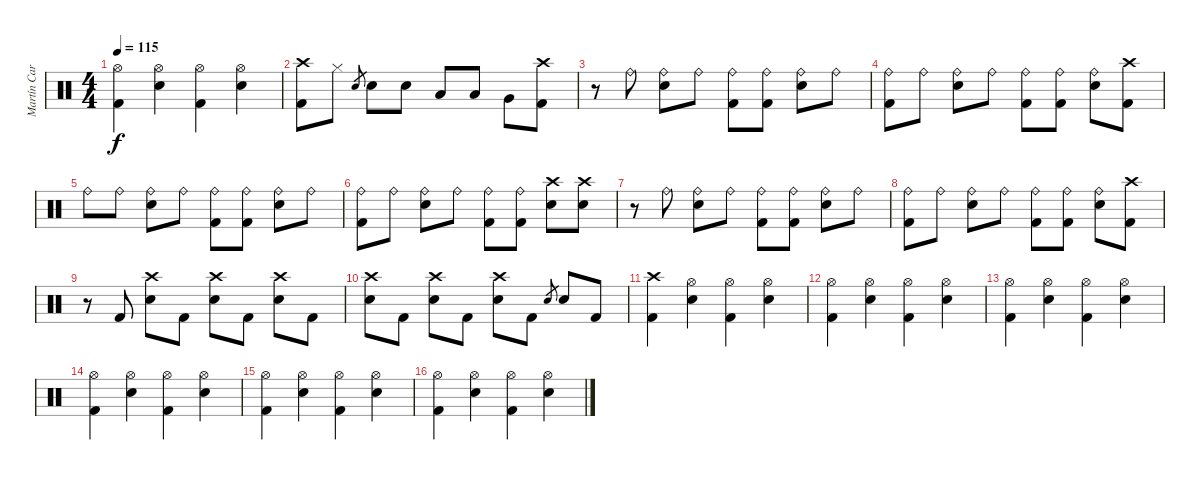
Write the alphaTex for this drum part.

\track ("Martín Carrizo" "Martín Car") {instrument percussion}
\staff {score}
\articulation defaults
\ts (4 4)
\tempo 115
\clef neutral
\ks c
("Hi-Hat (open)" "Kick (hit) 2").4{dy f} ("Hi-Hat (open)" "Snare (hit) 2").4 ("Hi-Hat (open)" "Kick (hit) 2").4 ("Hi-Hat (open)" "Snare (hit) 2").4 |
("Crash high (hit)" "Kick (hit) 2").8 "Hi-Hat (closed)".8 "Snare (hit) 2".8{gr} "Snare (hit) 2".8 "Snare (hit) 2".8 "Low Tom (hit)".8 "Low Tom (hit)".8 "Very Low Tom (hit)".8 ("Crash high (hit)" "Kick (hit) 2").8 |
r.8 "Ride (bell)".8 ("Ride (bell)" "Snare (hit) 2").8 "Ride (bell)".8 ("Ride (bell)" "Kick (hit) 2").8 ("Ride (bell)" "Kick (hit) 2").8 ("Ride (bell)" "Snare (hit) 2").8 "Ride (bell)".8 |
("Ride (bell)" "Kick (hit) 2").8 "Ride (bell)".8 ("Ride (bell)" "Snare (hit) 2").8 "Ride (bell)".8 ("Ride (bell)" "Kick (hit) 2").8 ("Ride (bell)" "Kick (hit) 2").8 ("Ride (bell)" "Snare (hit) 2").8 ("Crash high (hit)" "Kick (hit) 2").8 |
"Ride (bell)".8 "Ride (bell)".8 ("Ride (bell)" "Snare (hit) 2").8 "Ride (bell)".8 ("Ride (bell)" "Kick (hit) 2").8 ("Ride (bell)" "Kick (hit) 2").8 ("Ride (bell)" "Snare (hit) 2").8 "Ride (bell)".8 |
("Ride (bell)" "Kick (hit) 2").8 "Ride (bell)".8 ("Ride (bell)" "Snare (hit) 2").8 "Ride (bell)".8 ("Ride (bell)" "Kick (hit) 2").8 ("Ride (bell)" "Kick (hit) 2").8 ("Crash high (hit)" "Snare (hit) 2").8 ("Crash high (hit)" "Snare (hit) 2").8 |
r.8 "Ride (bell)".8 ("Ride (bell)" "Snare (hit) 2").8 "Ride (bell)".8 ("Ride (bell)" "Kick (hit) 2").8 ("Ride (bell)" "Kick (hit) 2").8 ("Ride (bell)" "Snare (hit) 2").8 "Ride (bell)".8 |
("Ride (bell)" "Kick (hit) 2").8 "Ride (bell)".8 ("Ride (bell)" "Snare (hit) 2").8 "Ride (bell)".8 ("Ride (bell)" "Kick (hit) 2").8 ("Ride (bell)" "Kick (hit) 2").8 ("Ride (bell)" "Snare (hit) 2").8 ("Crash high (hit)" "Kick (hit) 2").8 |
r.8 "Kick (hit) 2".8 ("Crash high (hit)" "Snare (hit) 2").8 "Kick (hit) 2".8 ("Crash high (hit)" "Snare (hit) 2").8 "Kick (hit) 2".8 ("Crash high (hit)" "Snare (hit) 2").8 "Kick (hit) 2".8 |
("Crash high (hit)" "Snare (hit) 2").8 "Kick (hit) 2".8 ("Crash high (hit)" "Snare (hit) 2").8 "Kick (hit) 2".8 ("Crash high (hit)" "Snare (hit) 2").8 "Kick (hit) 2".8 "Snare (hit) 2".8{gr} "Snare (hit) 2".8 "Kick (hit) 2".8 |
("Crash high (hit)" "Kick (hit) 2").4 ("Hi-Hat (open)" "Snare (hit) 2").4 ("Hi-Hat (open)" "Kick (hit) 2").4 ("Hi-Hat (open)" "Snare (hit) 2").4 |
("Hi-Hat (open)" "Kick (hit) 2").4 ("Hi-Hat (open)" "Snare (hit) 2").4 ("Hi-Hat (open)" "Kick (hit) 2").4 ("Hi-Hat (open)" "Snare (hit) 2").4 |
("Hi-Hat (open)" "Kick (hit) 2").4 ("Hi-Hat (open)" "Snare (hit) 2").4 ("Hi-Hat (open)" "Kick (hit) 2").4 ("Hi-Hat (open)" "Snare (hit) 2").4 |
("Hi-Hat (open)" "Kick (hit) 2").4 ("Hi-Hat (open)" "Snare (hit) 2").4 ("Hi-Hat (open)" "Kick (hit) 2").4 ("Hi-Hat (open)" "Snare (hit) 2").4 |
("Hi-Hat (open)" "Kick (hit) 2").4 ("Hi-Hat (open)" "Snare (hit) 2").4 ("Hi-Hat (open)" "Kick (hit) 2").4 ("Hi-Hat (open)" "Snare (hit) 2").4 |
("Hi-Hat (open)" "Kick (hit) 2").4 ("Hi-Hat (open)" "Snare (hit) 2").4 ("Hi-Hat (open)" "Kick (hit) 2").4 ("Hi-Hat (open)" "Snare (hit) 2").4
